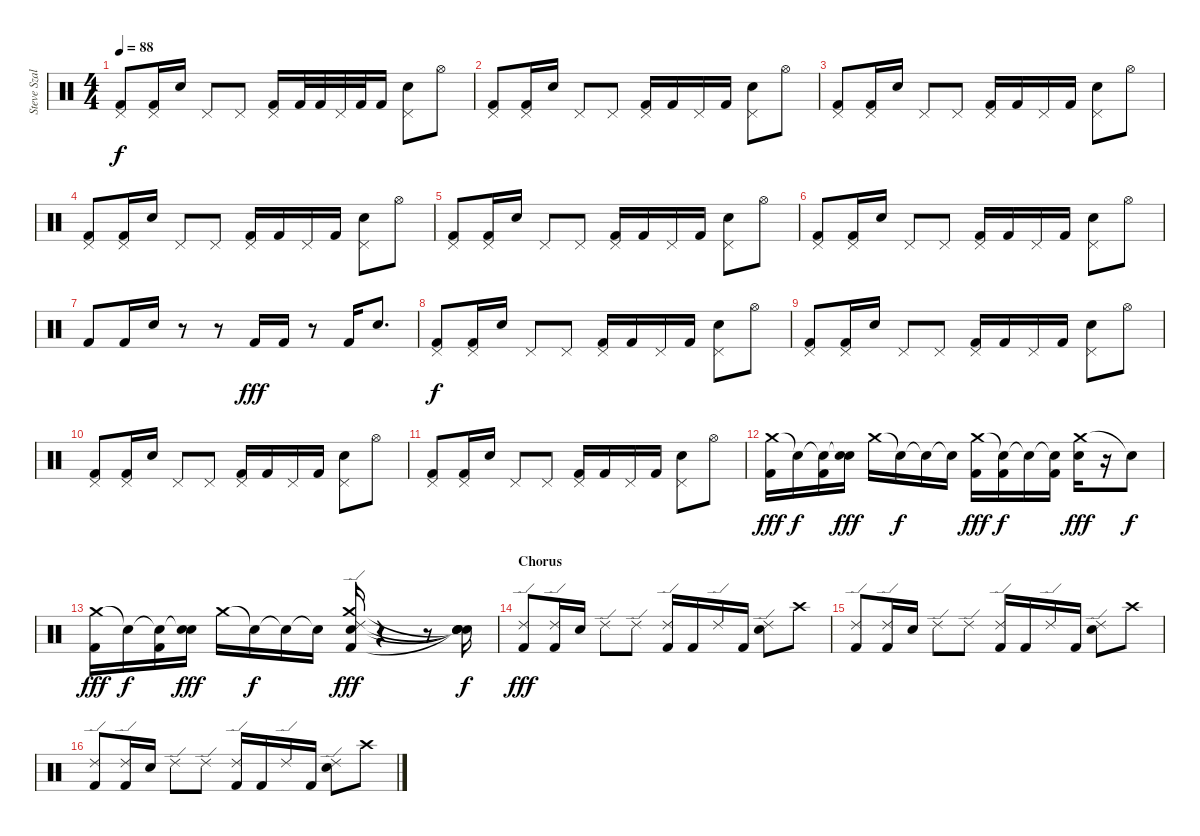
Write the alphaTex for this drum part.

\track ("Steve Szalay " "Steve Szal") {instrument percussion}
\staff {score}
\articulation defaults
\ts (4 4)
\tempo 88
\clef neutral
\ks c
("Pedal Hi-Hat (hit)" "Kick (hit) 2").8{dy f} ("Pedal Hi-Hat (hit)" "Kick (hit) 2").16 "Electric Snare (hit)".16 "Pedal Hi-Hat (hit)".8 "Pedal Hi-Hat (hit)".8 ("Pedal Hi-Hat (hit)" "Kick (hit) 2").16 "Kick (hit) 2".32 "Kick (hit) 2".32 "Pedal Hi-Hat (hit)".32 "Kick (hit) 2".32 "Kick (hit) 2".16 ("Pedal Hi-Hat (hit)" "Electric Snare (hit)").8 "Hi-Hat (open)".8 |
("Pedal Hi-Hat (hit)" "Kick (hit) 2").8 ("Pedal Hi-Hat (hit)" "Kick (hit) 2").16 "Electric Snare (hit)".16 "Pedal Hi-Hat (hit)".8 "Pedal Hi-Hat (hit)".8 ("Pedal Hi-Hat (hit)" "Kick (hit) 2").16 "Kick (hit) 2".16 "Pedal Hi-Hat (hit)".16 "Kick (hit) 2".16 ("Pedal Hi-Hat (hit)" "Electric Snare (hit)").8 "Hi-Hat (open)".8 |
("Pedal Hi-Hat (hit)" "Kick (hit) 2").8 ("Pedal Hi-Hat (hit)" "Kick (hit) 2").16 "Electric Snare (hit)".16 "Pedal Hi-Hat (hit)".8 "Pedal Hi-Hat (hit)".8 ("Pedal Hi-Hat (hit)" "Kick (hit) 2").16 "Kick (hit) 2".16 "Pedal Hi-Hat (hit)".16 "Kick (hit) 2".16 ("Pedal Hi-Hat (hit)" "Electric Snare (hit)").8 "Hi-Hat (open)".8 |
("Pedal Hi-Hat (hit)" "Kick (hit) 2").8 ("Pedal Hi-Hat (hit)" "Kick (hit) 2").16 "Electric Snare (hit)".16 "Pedal Hi-Hat (hit)".8 "Pedal Hi-Hat (hit)".8 ("Pedal Hi-Hat (hit)" "Kick (hit) 2").16 "Kick (hit) 2".16 "Pedal Hi-Hat (hit)".16 "Kick (hit) 2".16 ("Pedal Hi-Hat (hit)" "Electric Snare (hit)").8 "Hi-Hat (open)".8 |
("Pedal Hi-Hat (hit)" "Kick (hit) 2").8 ("Pedal Hi-Hat (hit)" "Kick (hit) 2").16 "Electric Snare (hit)".16 "Pedal Hi-Hat (hit)".8 "Pedal Hi-Hat (hit)".8 ("Pedal Hi-Hat (hit)" "Kick (hit) 2").16 "Kick (hit) 2".16 "Pedal Hi-Hat (hit)".16 "Kick (hit) 2".16 ("Pedal Hi-Hat (hit)" "Electric Snare (hit)").8 "Hi-Hat (open)".8 |
("Pedal Hi-Hat (hit)" "Kick (hit) 2").8 ("Pedal Hi-Hat (hit)" "Kick (hit) 2").16 "Electric Snare (hit)".16 "Pedal Hi-Hat (hit)".8 "Pedal Hi-Hat (hit)".8 ("Pedal Hi-Hat (hit)" "Kick (hit) 2").16 "Kick (hit) 2".16 "Pedal Hi-Hat (hit)".16 "Kick (hit) 2".16 ("Pedal Hi-Hat (hit)" "Electric Snare (hit)").8 "Hi-Hat (open)".8 |
"Kick (hit) 2".8 "Kick (hit) 2".16 "Electric Snare (hit)".16 r.8 r.8 "Kick (hit) 2".16{dy fff} "Kick (hit) 2".16 r.8 "Kick (hit) 2".16 "Electric Snare (hit)".8{d} |
("Pedal Hi-Hat (hit)" "Kick (hit) 2").8{dy f} ("Pedal Hi-Hat (hit)" "Kick (hit) 2").16 "Electric Snare (hit)".16 "Pedal Hi-Hat (hit)".8 "Pedal Hi-Hat (hit)".8 ("Pedal Hi-Hat (hit)" "Kick (hit) 2").16 "Kick (hit) 2".16 "Pedal Hi-Hat (hit)".16 "Kick (hit) 2".16 ("Pedal Hi-Hat (hit)" "Electric Snare (hit)").8 "Hi-Hat (open)".8 |
("Pedal Hi-Hat (hit)" "Kick (hit) 2").8 ("Pedal Hi-Hat (hit)" "Kick (hit) 2").16 "Electric Snare (hit)".16 "Pedal Hi-Hat (hit)".8 "Pedal Hi-Hat (hit)".8 ("Pedal Hi-Hat (hit)" "Kick (hit) 2").16 "Kick (hit) 2".16 "Pedal Hi-Hat (hit)".16 "Kick (hit) 2".16 ("Pedal Hi-Hat (hit)" "Electric Snare (hit)").8 "Hi-Hat (open)".8 |
("Pedal Hi-Hat (hit)" "Kick (hit) 2").8 ("Pedal Hi-Hat (hit)" "Kick (hit) 2").16 "Electric Snare (hit)".16 "Pedal Hi-Hat (hit)".8 "Pedal Hi-Hat (hit)".8 ("Pedal Hi-Hat (hit)" "Kick (hit) 2").16 "Kick (hit) 2".16 "Pedal Hi-Hat (hit)".16 "Kick (hit) 2".16 ("Pedal Hi-Hat (hit)" "Electric Snare (hit)").8 "Hi-Hat (open)".8 |
("Pedal Hi-Hat (hit)" "Kick (hit) 2").8 ("Pedal Hi-Hat (hit)" "Kick (hit) 2").16 "Electric Snare (hit)".16 "Pedal Hi-Hat (hit)".8 "Pedal Hi-Hat (hit)".8 ("Pedal Hi-Hat (hit)" "Kick (hit) 2").16 "Kick (hit) 2".16 "Pedal Hi-Hat (hit)".16 "Kick (hit) 2".16 ("Pedal Hi-Hat (hit)" "Electric Snare (hit)").8 "Hi-Hat (open)".8 |
("Crash medium (hit)" "Kick (hit) 2").16{dy fff} "Snare (hit)"{t}.16{dy f} ("Snare (hit)"{t} "Kick (hit) 2").16 ("Snare (hit)"{t} "Electric Snare (hit)").16{dy fff} "Crash medium (hit)".16 "Snare (hit)"{t}.16{dy f} "Snare (hit)"{t}.16 "Snare (hit)"{t}.16 ("Crash medium (hit)" "Kick (hit) 2").16{dy fff} ("Snare (hit)"{t} "Kick (hit) 2").16{dy f} "Snare (hit)"{t}.16 ("Snare (hit)"{t} "Kick (hit) 2").16 ("Crash medium (hit)" "Electric Snare (hit)").16{dy fff} r.16 "Snare (hit)"{t}.8{dy f} |
("Crash medium (hit)" "Kick (hit) 2").16{dy fff} "Snare (hit)"{t}.16{dy f} ("Snare (hit)"{t} "Kick (hit) 2").16 ("Snare (hit)"{t} "Electric Snare (hit)").16{dy fff} "Crash medium (hit)".16 "Snare (hit)"{t}.16{dy f} "Snare (hit)"{t}.16 "Snare (hit)"{t}.16 ("Crash medium (hit)" "Ride (edge) 2" "Electric Snare (hit)" "Kick (hit) 2").16{dy fff} r.4 r.8 ("Snare (hit)"{t} "Snare (hit)"{t} "Snare (hit)"{t} "Snare (hit)"{t}).16{dy f} |
\section ("" "Chorus")
("Ride (edge) 2" "Kick (hit) 2").8{dy fff} ("Ride (edge) 2" "Kick (hit) 2").16 "Electric Snare (hit)".16 "Ride (edge) 2".8 "Ride (edge) 2".8 ("Ride (edge) 2" "Kick (hit) 2").16 "Kick (hit) 2".16 "Ride (edge) 2".16 "Kick (hit) 2".16 ("Ride (edge) 2" "Electric Snare (hit)").8 "Crash high (hit)".8 |
("Ride (edge) 2" "Kick (hit) 2").8 ("Ride (edge) 2" "Kick (hit) 2").16 "Electric Snare (hit)".16 "Ride (edge) 2".8 "Ride (edge) 2".8 ("Ride (edge) 2" "Kick (hit) 2").16 "Kick (hit) 2".16 "Ride (edge) 2".16 "Kick (hit) 2".16 ("Ride (edge) 2" "Electric Snare (hit)").8 "Crash high (hit)".8 |
("Ride (edge) 2" "Kick (hit) 2").8 ("Ride (edge) 2" "Kick (hit) 2").16 "Electric Snare (hit)".16 "Ride (edge) 2".8 "Ride (edge) 2".8 ("Ride (edge) 2" "Kick (hit) 2").16 "Kick (hit) 2".16 "Ride (edge) 2".16 "Kick (hit) 2".16 ("Ride (edge) 2" "Electric Snare (hit)").8 "Crash high (hit)".8
